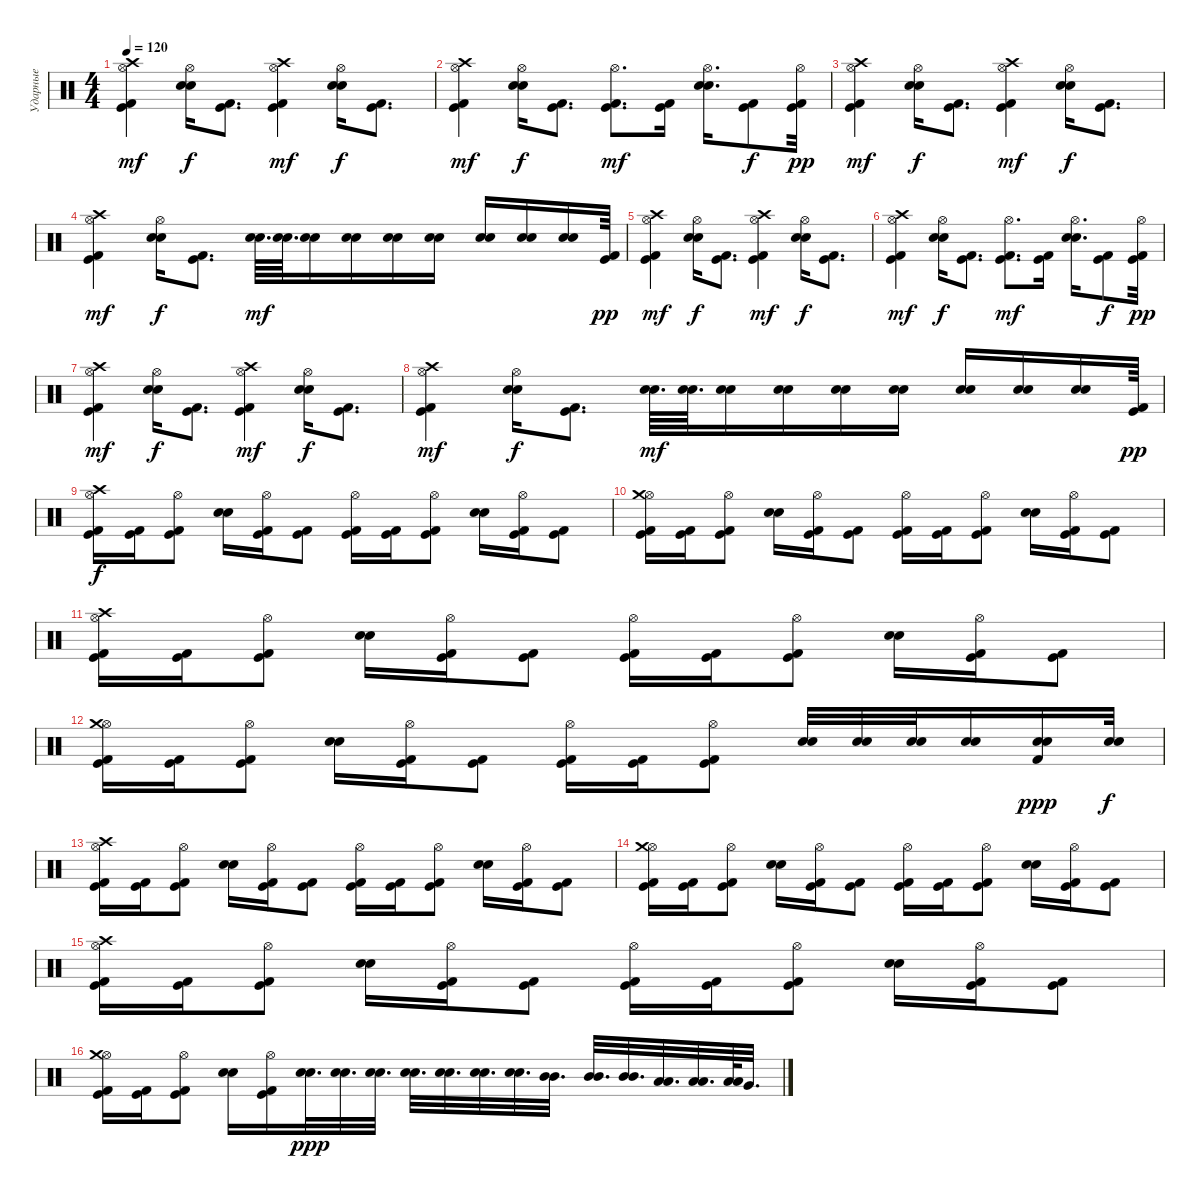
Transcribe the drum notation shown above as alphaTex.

\track ("Ударные" "Ударные") {instrument percussion}
\staff {score}
\articulation defaults
\ts (4 4)
\tempo 120
\clef neutral
\ks c
("Kick (hit) 2" "Kick (hit)" "Hi-Hat (open)" "Crash high (hit)").4{dy mf} ("Snare (hit) 2" "Electric Snare (hit)" "Hi-Hat (open)").16{dy f} ("Kick (hit) 2" "Kick (hit)").8{d} ("Kick (hit) 2" "Kick (hit)" "Hi-Hat (open)" "Crash high (hit)").4{dy mf} ("Snare (hit) 2" "Electric Snare (hit)" "Hi-Hat (open)").16{dy f} ("Kick (hit) 2" "Kick (hit)").8{d} |
("Kick (hit) 2" "Kick (hit)" "Hi-Hat (open)" "Crash high (hit)").4{dy mf} ("Snare (hit) 2" "Electric Snare (hit)" "Hi-Hat (open)").16{dy f} ("Kick (hit) 2" "Kick (hit)").8{d} ("Kick (hit) 2" "Kick (hit)" "Hi-Hat (open)").8{d dy mf} ("Kick (hit) 2" "Kick (hit)").16 ("Snare (hit) 2" "Electric Snare (hit)" "Hi-Hat (open)").16{d} ("Kick (hit) 2" "Kick (hit)").8{dy f} ("Kick (hit) 2" "Kick (hit)" "Hi-Hat (open)").32{dy pp} |
("Kick (hit) 2" "Kick (hit)" "Hi-Hat (open)" "Crash high (hit)").4{dy mf} ("Snare (hit) 2" "Electric Snare (hit)" "Hi-Hat (open)").16{dy f} ("Kick (hit) 2" "Kick (hit)").8{d} ("Kick (hit) 2" "Kick (hit)" "Hi-Hat (open)" "Crash high (hit)").4{dy mf} ("Snare (hit) 2" "Electric Snare (hit)" "Hi-Hat (open)").16{dy f} ("Kick (hit) 2" "Kick (hit)").8{d} |
("Kick (hit) 2" "Kick (hit)" "Hi-Hat (open)" "Crash high (hit)").4{dy mf} ("Snare (hit) 2" "Electric Snare (hit)" "Hi-Hat (open)").16{dy f} ("Kick (hit) 2" "Kick (hit)").8{d} ("Snare (hit) 2" "Electric Snare (hit)").64{d dy mf} ("Snare (hit) 2" "Electric Snare (hit)").64{d} ("Snare (hit) 2" "Electric Snare (hit)").16 ("Snare (hit) 2" "Electric Snare (hit)").16 ("Snare (hit) 2" "Electric Snare (hit)").16 ("Snare (hit) 2" "Electric Snare (hit)").16 ("Snare (hit) 2" "Electric Snare (hit)").16 ("Snare (hit) 2" "Electric Snare (hit)").16 ("Snare (hit) 2" "Electric Snare (hit)").16 ("Kick (hit) 2" "Kick (hit)").64{dy pp} |
("Kick (hit) 2" "Kick (hit)" "Hi-Hat (open)" "Crash high (hit)").4{dy mf} ("Snare (hit) 2" "Electric Snare (hit)" "Hi-Hat (open)").16{dy f} ("Kick (hit) 2" "Kick (hit)").8{d} ("Kick (hit) 2" "Kick (hit)" "Hi-Hat (open)" "Crash high (hit)").4{dy mf} ("Snare (hit) 2" "Electric Snare (hit)" "Hi-Hat (open)").16{dy f} ("Kick (hit) 2" "Kick (hit)").8{d} |
("Kick (hit) 2" "Kick (hit)" "Hi-Hat (open)" "Crash high (hit)").4{dy mf} ("Snare (hit) 2" "Electric Snare (hit)" "Hi-Hat (open)").16{dy f} ("Kick (hit) 2" "Kick (hit)").8{d} ("Kick (hit) 2" "Kick (hit)" "Hi-Hat (open)").8{d dy mf} ("Kick (hit) 2" "Kick (hit)").16 ("Snare (hit) 2" "Electric Snare (hit)" "Hi-Hat (open)").16{d} ("Kick (hit) 2" "Kick (hit)").8{dy f} ("Kick (hit) 2" "Kick (hit)" "Hi-Hat (open)").32{dy pp} |
("Kick (hit) 2" "Kick (hit)" "Hi-Hat (open)" "Crash high (hit)").4{dy mf} ("Snare (hit) 2" "Electric Snare (hit)" "Hi-Hat (open)").16{dy f} ("Kick (hit) 2" "Kick (hit)").8{d} ("Kick (hit) 2" "Kick (hit)" "Hi-Hat (open)" "Crash high (hit)").4{dy mf} ("Snare (hit) 2" "Electric Snare (hit)" "Hi-Hat (open)").16{dy f} ("Kick (hit) 2" "Kick (hit)").8{d} |
("Kick (hit) 2" "Kick (hit)" "Hi-Hat (open)" "Crash high (hit)").4{dy mf} ("Snare (hit) 2" "Electric Snare (hit)" "Hi-Hat (open)").16{dy f} ("Kick (hit) 2" "Kick (hit)").8{d} ("Snare (hit) 2" "Electric Snare (hit)").64{d dy mf} ("Snare (hit) 2" "Electric Snare (hit)").64{d} ("Snare (hit) 2" "Electric Snare (hit)").16 ("Snare (hit) 2" "Electric Snare (hit)").16 ("Snare (hit) 2" "Electric Snare (hit)").16 ("Snare (hit) 2" "Electric Snare (hit)").16 ("Snare (hit) 2" "Electric Snare (hit)").16 ("Snare (hit) 2" "Electric Snare (hit)").16 ("Snare (hit) 2" "Electric Snare (hit)").16 ("Kick (hit) 2" "Kick (hit)").64{dy pp} |
("Kick (hit) 2" "Kick (hit)" "Hi-Hat (open)" "Crash high (hit)").16{dy f} ("Kick (hit) 2" "Kick (hit)").16 ("Kick (hit) 2" "Kick (hit)" "Hi-Hat (open)").8 ("Snare (hit) 2" "Electric Snare (hit)").16 ("Kick (hit) 2" "Kick (hit)" "Hi-Hat (open)").16 ("Kick (hit) 2" "Kick (hit)").8 ("Kick (hit) 2" "Kick (hit)" "Hi-Hat (open)").16 ("Kick (hit)" "Kick (hit) 2").16 ("Kick (hit)" "Kick (hit) 2" "Hi-Hat (open)").8 ("Snare (hit) 2" "Electric Snare (hit)").16 ("Kick (hit) 2" "Kick (hit)" "Hi-Hat (open)").16 ("Kick (hit) 2" "Kick (hit)").8 |
("Kick (hit) 2" "Kick (hit)" "Hi-Hat (open)" "Crash medium (hit)").16 ("Kick (hit) 2" "Kick (hit)").16 ("Kick (hit) 2" "Kick (hit)" "Hi-Hat (open)").8 ("Snare (hit) 2" "Electric Snare (hit)").16 ("Kick (hit) 2" "Kick (hit)" "Hi-Hat (open)").16 ("Kick (hit) 2" "Kick (hit)").8 ("Kick (hit) 2" "Kick (hit)" "Hi-Hat (open)").16 ("Kick (hit)" "Kick (hit) 2").16 ("Kick (hit)" "Kick (hit) 2" "Hi-Hat (open)").8 ("Snare (hit) 2" "Electric Snare (hit)").16 ("Kick (hit) 2" "Kick (hit)" "Hi-Hat (open)").16 ("Kick (hit) 2" "Kick (hit)").8 |
("Kick (hit) 2" "Kick (hit)" "Hi-Hat (open)" "Crash high (hit)").16 ("Kick (hit) 2" "Kick (hit)").16 ("Kick (hit) 2" "Kick (hit)" "Hi-Hat (open)").8 ("Snare (hit) 2" "Electric Snare (hit)").16 ("Kick (hit) 2" "Kick (hit)" "Hi-Hat (open)").16 ("Kick (hit) 2" "Kick (hit)").8 ("Kick (hit) 2" "Kick (hit)" "Hi-Hat (open)").16 ("Kick (hit)" "Kick (hit) 2").16 ("Kick (hit)" "Kick (hit) 2" "Hi-Hat (open)").8 ("Snare (hit) 2" "Electric Snare (hit)").16 ("Kick (hit) 2" "Kick (hit)" "Hi-Hat (open)").16 ("Kick (hit) 2" "Kick (hit)").8 |
("Kick (hit) 2" "Kick (hit)" "Hi-Hat (open)" "Crash medium (hit)").16 ("Kick (hit) 2" "Kick (hit)").16 ("Kick (hit) 2" "Kick (hit)" "Hi-Hat (open)").8 ("Snare (hit) 2" "Electric Snare (hit)").16 ("Kick (hit) 2" "Kick (hit)" "Hi-Hat (open)").16 ("Kick (hit) 2" "Kick (hit)").8 ("Kick (hit) 2" "Kick (hit)" "Hi-Hat (open)").16 ("Kick (hit)" "Kick (hit) 2").16 ("Kick (hit)" "Kick (hit) 2" "Hi-Hat (open)").8 ("Snare (hit) 2" "Electric Snare (hit)").32 ("Snare (hit) 2" "Electric Snare (hit)").32 ("Snare (hit) 2" "Electric Snare (hit)").32 ("Snare (hit) 2" "Electric Snare (hit)").16 ("Kick (hit) 2" "Snare (hit) 2" "Electric Snare (hit)").16{dy ppp} ("Snare (hit) 2" "Electric Snare (hit)").32{dy f} |
("Kick (hit) 2" "Kick (hit)" "Hi-Hat (open)" "Crash high (hit)").16 ("Kick (hit) 2" "Kick (hit)").16 ("Kick (hit) 2" "Kick (hit)" "Hi-Hat (open)").8 ("Snare (hit) 2" "Electric Snare (hit)").16 ("Kick (hit) 2" "Kick (hit)" "Hi-Hat (open)").16 ("Kick (hit) 2" "Kick (hit)").8 ("Kick (hit) 2" "Kick (hit)" "Hi-Hat (open)").16 ("Kick (hit)" "Kick (hit) 2").16 ("Kick (hit)" "Kick (hit) 2" "Hi-Hat (open)").8 ("Snare (hit) 2" "Electric Snare (hit)").16 ("Kick (hit) 2" "Kick (hit)" "Hi-Hat (open)").16 ("Kick (hit) 2" "Kick (hit)").8 |
("Kick (hit) 2" "Kick (hit)" "Hi-Hat (open)" "Crash medium (hit)").16 ("Kick (hit) 2" "Kick (hit)").16 ("Kick (hit) 2" "Kick (hit)" "Hi-Hat (open)").8 ("Snare (hit) 2" "Electric Snare (hit)").16 ("Kick (hit) 2" "Kick (hit)" "Hi-Hat (open)").16 ("Kick (hit) 2" "Kick (hit)").8 ("Kick (hit) 2" "Kick (hit)" "Hi-Hat (open)").16 ("Kick (hit)" "Kick (hit) 2").16 ("Kick (hit)" "Kick (hit) 2" "Hi-Hat (open)").8 ("Snare (hit) 2" "Electric Snare (hit)").16 ("Kick (hit) 2" "Kick (hit)" "Hi-Hat (open)").16 ("Kick (hit) 2" "Kick (hit)").8 |
("Kick (hit) 2" "Kick (hit)" "Hi-Hat (open)" "Crash high (hit)").16 ("Kick (hit) 2" "Kick (hit)").16 ("Kick (hit) 2" "Kick (hit)" "Hi-Hat (open)").8 ("Snare (hit) 2" "Electric Snare (hit)").16 ("Kick (hit) 2" "Kick (hit)" "Hi-Hat (open)").16 ("Kick (hit) 2" "Kick (hit)").8 ("Kick (hit) 2" "Kick (hit)" "Hi-Hat (open)").16 ("Kick (hit)" "Kick (hit) 2").16 ("Kick (hit)" "Kick (hit) 2" "Hi-Hat (open)").8 ("Snare (hit) 2" "Electric Snare (hit)").16 ("Kick (hit) 2" "Kick (hit)" "Hi-Hat (open)").16 ("Kick (hit) 2" "Kick (hit)").8 |
("Kick (hit) 2" "Kick (hit)" "Hi-Hat (open)" "Crash medium (hit)").16 ("Kick (hit) 2" "Kick (hit)").16 ("Kick (hit) 2" "Kick (hit)" "Hi-Hat (open)").8 ("Snare (hit) 2" "Electric Snare (hit)").16 ("Kick (hit) 2" "Kick (hit)" "Hi-Hat (open)").16 ("Snare (hit) 2" "Electric Snare (hit)").32{d dy ppp} ("Snare (hit) 2" "Electric Snare (hit)").32{d} ("Snare (hit) 2" "Electric Snare (hit)").32{d} ("Snare (hit) 2" "Electric Snare (hit)").32{d} ("Snare (hit) 2" "Electric Snare (hit)").32{d} ("Snare (hit) 2" "Electric Snare (hit)").32{d} ("Snare (hit) 2" "Electric Snare (hit)").32{d} ("Mid Tom (hit)" "Mid Tom (hit)").32{d} ("Mid Tom (hit)" "Mid Tom (hit)").32{d} ("Mid Tom (hit)" "Mid Tom (hit)").32{d} ("Low Tom (hit)" "Low Tom (hit)").32{d} ("Low Tom (hit)" "Low Tom (hit)").32{d} ("Low Tom (hit)" "Low Tom (hit)").64 "Very Low Tom (hit)".32{d}
